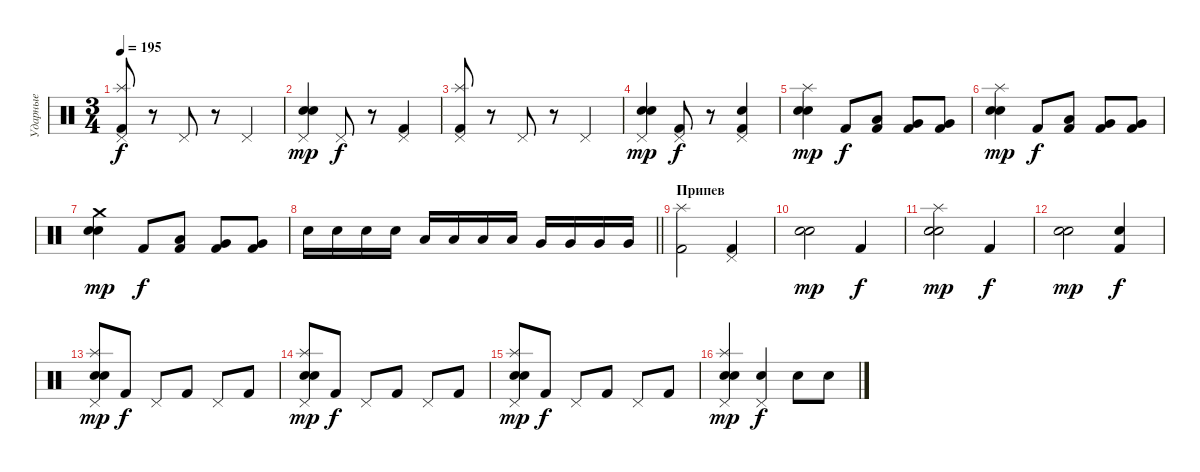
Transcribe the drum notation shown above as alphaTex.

\track ("Ударные" "Ударные") {instrument percussion}
\staff {score}
\articulation defaults
\ts (3 4)
\tempo 195
\clef neutral
\ks c
("Pedal Hi-Hat (hit)" "Splash (hit)" "Kick (hit) 2").8{dy f} r.8 "Pedal Hi-Hat (hit)".8 r.8 "Pedal Hi-Hat (hit)".4 |
("Pedal Hi-Hat (hit)" "Electric Snare (hit)" "Snare (hit) 2").4{dy mp} "Pedal Hi-Hat (hit)".8{dy f} r.8 ("Pedal Hi-Hat (hit)" "Kick (hit) 2").4 |
("Pedal Hi-Hat (hit)" "Splash (hit)" "Kick (hit) 2").8 r.8 "Pedal Hi-Hat (hit)".8 r.8 "Pedal Hi-Hat (hit)".4 |
("Pedal Hi-Hat (hit)" "Electric Snare (hit)" "Snare (hit) 2").4{dy mp} ("Pedal Hi-Hat (hit)" "Kick (hit) 2").8{dy f} r.8 ("Pedal Hi-Hat (hit)" "Electric Snare (hit)" "Kick (hit) 2").4 |
("Splash (hit)" "Electric Snare (hit)" "Snare (hit) 2").4{dy mp} "Kick (hit) 2".8{dy f} ("Low Tom (hit)" "Kick (hit) 2").8 ("Very Low Tom (hit)" "Kick (hit) 2").8 ("Very Low Tom (hit)" "Kick (hit) 2").8 |
("Splash (hit)" "Electric Snare (hit)" "Snare (hit) 2").4{dy mp} "Kick (hit) 2".8{dy f} ("Low Tom (hit)" "Kick (hit) 2").8 ("Very Low Tom (hit)" "Kick (hit) 2").8 ("Very Low Tom (hit)" "Kick (hit) 2").8 |
("Crash medium (hit)" "Electric Snare (hit)" "Snare (hit) 2").4{dy mp} "Kick (hit) 2".8{dy f} ("Low Tom (hit)" "Kick (hit) 2").8 ("Very Low Tom (hit)" "Kick (hit) 2").8 ("Very Low Tom (hit)" "Kick (hit) 2").8 |
\barLineRight lightlight "Electric Snare (hit)".16 "Electric Snare (hit)".16 "Electric Snare (hit)".16 "Electric Snare (hit)".16 "Low Tom (hit)".16 "Low Tom (hit)".16 "Low Tom (hit)".16 "Low Tom (hit)".16 "Very Low Tom (hit)".16 "Very Low Tom (hit)".16 "Very Low Tom (hit)".16 "Very Low Tom (hit)".16
|
\section ("" "Припев")
("Splash (hit)" "Kick (hit) 2").2 ("Pedal Hi-Hat (hit)" "Kick (hit) 2").4 |
("Electric Snare (hit)" "Snare (hit) 2").2{dy mp} "Kick (hit) 2".4{dy f} |
("Splash (hit)" "Electric Snare (hit)" "Snare (hit) 2").2{dy mp} "Kick (hit) 2".4{dy f} |
("Electric Snare (hit)" "Snare (hit) 2").2{dy mp} ("Electric Snare (hit)" "Kick (hit) 2").4{dy f} |
("Pedal Hi-Hat (hit)" "Splash (hit)" "Electric Snare (hit)" "Snare (hit) 2").8{dy mp} "Kick (hit) 2".8{dy f} "Pedal Hi-Hat (hit)".8 "Kick (hit) 2".8 "Pedal Hi-Hat (hit)".8 "Kick (hit) 2".8 |
("Pedal Hi-Hat (hit)" "Splash (hit)" "Electric Snare (hit)" "Snare (hit) 2").8{dy mp} "Kick (hit) 2".8{dy f} "Pedal Hi-Hat (hit)".8 "Kick (hit) 2".8 "Pedal Hi-Hat (hit)".8 "Kick (hit) 2".8 |
("Pedal Hi-Hat (hit)" "Splash (hit)" "Electric Snare (hit)" "Snare (hit) 2").8{dy mp} "Kick (hit) 2".8{dy f} "Pedal Hi-Hat (hit)".8 "Kick (hit) 2".8 "Pedal Hi-Hat (hit)".8 "Kick (hit) 2".8 |
("Pedal Hi-Hat (hit)" "Splash (hit)" "Electric Snare (hit)" "Snare (hit) 2").4{dy mp} ("Pedal Hi-Hat (hit)" "Electric Snare (hit)").4{dy f} "Electric Snare (hit)".8 "Electric Snare (hit)".8
